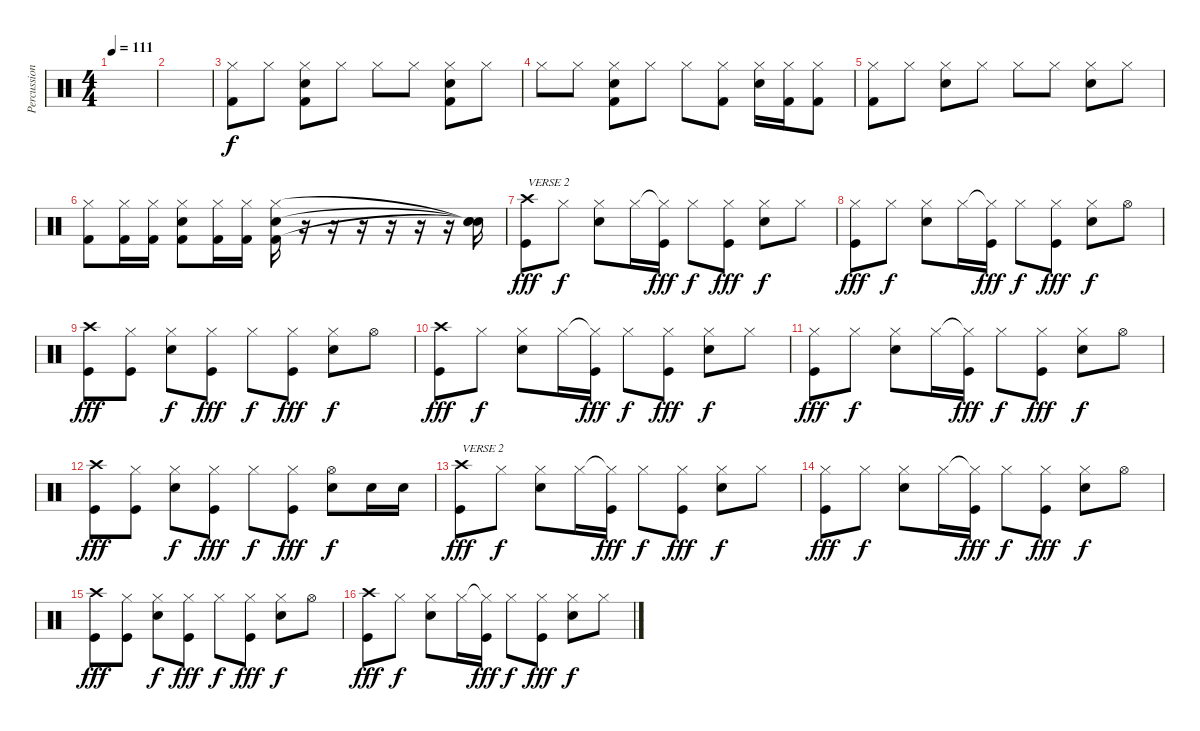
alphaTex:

\track ("Percussion" "Percussion") {instrument percussion}
\staff {score}
\articulation defaults
\ts (4 4)
\tempo 111
\clef neutral
\ks c
|
|
("Hi-Hat (closed)" "Kick (hit) 2").8 "Hi-Hat (closed)".8 ("Hi-Hat (closed)" "Electric Snare (hit)" "Kick (hit) 2").8 "Hi-Hat (closed)".8 "Hi-Hat (closed)".8 "Hi-Hat (closed)".8 ("Hi-Hat (closed)" "Electric Snare (hit)" "Kick (hit) 2").8 "Hi-Hat (closed)".8 |
"Hi-Hat (closed)".8 "Hi-Hat (closed)".8 ("Hi-Hat (closed)" "Electric Snare (hit)" "Kick (hit) 2").8 "Hi-Hat (closed)".8 "Hi-Hat (closed)".8 ("Hi-Hat (closed)" "Kick (hit) 2").8 ("Hi-Hat (closed)" "Electric Snare (hit)").16 ("Hi-Hat (closed)" "Kick (hit) 2").16 ("Hi-Hat (closed)" "Kick (hit) 2").8 |
("Hi-Hat (closed)" "Kick (hit) 2").8 "Hi-Hat (closed)".8 ("Hi-Hat (closed)" "Electric Snare (hit)").8 "Hi-Hat (closed)".8 "Hi-Hat (closed)".8 "Hi-Hat (closed)".8 ("Hi-Hat (closed)" "Electric Snare (hit)").8 "Hi-Hat (closed)".8 |
("Hi-Hat (closed)" "Kick (hit) 2").8 ("Hi-Hat (closed)" "Kick (hit) 2").16 ("Hi-Hat (closed)" "Kick (hit) 2").16 ("Hi-Hat (closed)" "Electric Snare (hit)" "Kick (hit) 2").8 ("Hi-Hat (closed)" "Kick (hit) 2").16 ("Hi-Hat (closed)" "Kick (hit) 2").16 ("Hi-Hat (closed)" "Electric Snare (hit)" "Kick (hit) 2").16 r.16 r.16 r.16 r.16 r.16 r.16 ("Snare (hit)"{t} "Snare (hit)"{t} "Snare (hit)"{t}).16 |
("Crash high (hit)" "Kick (hit)").8{txt "VERSE 2" dy fff} "Hi-Hat (closed)".8{dy f} ("Hi-Hat (closed)" "Snare (hit) 2").8 "Hi-Hat (closed)".16 ("Hi-Hat (closed)"{t} "Kick (hit)").16{dy fff} "Hi-Hat (closed)".8{dy f} ("Hi-Hat (closed)" "Kick (hit)").8{dy fff} ("Hi-Hat (closed)" "Snare (hit) 2").8{dy f} "Hi-Hat (closed)".8 |
("Hi-Hat (closed)" "Kick (hit)").8{dy fff} "Hi-Hat (closed)".8{dy f} ("Hi-Hat (closed)" "Snare (hit) 2").8 "Hi-Hat (closed)".16 ("Hi-Hat (closed)"{t} "Kick (hit)").16{dy fff} "Hi-Hat (closed)".8{dy f} ("Hi-Hat (closed)" "Kick (hit)").8{dy fff} ("Hi-Hat (closed)" "Snare (hit) 2").8{dy f} "Hi-Hat (open)".8 |
("Crash high (hit)" "Kick (hit)").8{dy fff} ("Hi-Hat (closed)" "Kick (hit)").8 ("Hi-Hat (closed)" "Snare (hit) 2").8{dy f} ("Hi-Hat (closed)" "Kick (hit)").8{dy fff} "Hi-Hat (closed)".8{dy f} ("Hi-Hat (closed)" "Kick (hit)").8{dy fff} ("Hi-Hat (closed)" "Snare (hit) 2").8{dy f} "Hi-Hat (open)".8 |
("Crash high (hit)" "Kick (hit)").8{dy fff} "Hi-Hat (closed)".8{dy f} ("Hi-Hat (closed)" "Snare (hit) 2").8 "Hi-Hat (closed)".16 ("Hi-Hat (closed)"{t} "Kick (hit)").16{dy fff} "Hi-Hat (closed)".8{dy f} ("Hi-Hat (closed)" "Kick (hit)").8{dy fff} ("Hi-Hat (closed)" "Snare (hit) 2").8{dy f} "Hi-Hat (closed)".8 |
("Hi-Hat (closed)" "Kick (hit)").8{dy fff} "Hi-Hat (closed)".8{dy f} ("Hi-Hat (closed)" "Snare (hit) 2").8 "Hi-Hat (closed)".16 ("Hi-Hat (closed)"{t} "Kick (hit)").16{dy fff} "Hi-Hat (closed)".8{dy f} ("Hi-Hat (closed)" "Kick (hit)").8{dy fff} ("Hi-Hat (closed)" "Snare (hit) 2").8{dy f} "Hi-Hat (open)".8 |
("Crash high (hit)" "Kick (hit)").8{dy fff} ("Hi-Hat (closed)" "Kick (hit)").8 ("Hi-Hat (closed)" "Snare (hit) 2").8{dy f} ("Hi-Hat (closed)" "Kick (hit)").8{dy fff} "Hi-Hat (closed)".8{dy f} ("Hi-Hat (closed)" "Kick (hit)").8{dy fff} ("Hi-Hat (open)" "Snare (hit) 2").8{dy f} "Snare (hit) 2".16 "Snare (hit) 2".16 |
("Crash high (hit)" "Kick (hit)").8{txt "VERSE 2" dy fff} "Hi-Hat (closed)".8{dy f} ("Hi-Hat (closed)" "Snare (hit) 2").8 "Hi-Hat (closed)".16 ("Hi-Hat (closed)"{t} "Kick (hit)").16{dy fff} "Hi-Hat (closed)".8{dy f} ("Hi-Hat (closed)" "Kick (hit)").8{dy fff} ("Hi-Hat (closed)" "Snare (hit) 2").8{dy f} "Hi-Hat (closed)".8 |
("Hi-Hat (closed)" "Kick (hit)").8{dy fff} "Hi-Hat (closed)".8{dy f} ("Hi-Hat (closed)" "Snare (hit) 2").8 "Hi-Hat (closed)".16 ("Hi-Hat (closed)"{t} "Kick (hit)").16{dy fff} "Hi-Hat (closed)".8{dy f} ("Hi-Hat (closed)" "Kick (hit)").8{dy fff} ("Hi-Hat (closed)" "Snare (hit) 2").8{dy f} "Hi-Hat (open)".8 |
("Crash high (hit)" "Kick (hit)").8{dy fff} ("Hi-Hat (closed)" "Kick (hit)").8 ("Hi-Hat (closed)" "Snare (hit) 2").8{dy f} ("Hi-Hat (closed)" "Kick (hit)").8{dy fff} "Hi-Hat (closed)".8{dy f} ("Hi-Hat (closed)" "Kick (hit)").8{dy fff} ("Hi-Hat (closed)" "Snare (hit) 2").8{dy f} "Hi-Hat (open)".8 |
("Crash high (hit)" "Kick (hit)").8{dy fff} "Hi-Hat (closed)".8{dy f} ("Hi-Hat (closed)" "Snare (hit) 2").8 "Hi-Hat (closed)".16 ("Hi-Hat (closed)"{t} "Kick (hit)").16{dy fff} "Hi-Hat (closed)".8{dy f} ("Hi-Hat (closed)" "Kick (hit)").8{dy fff} ("Hi-Hat (closed)" "Snare (hit) 2").8{dy f} "Hi-Hat (closed)".8
